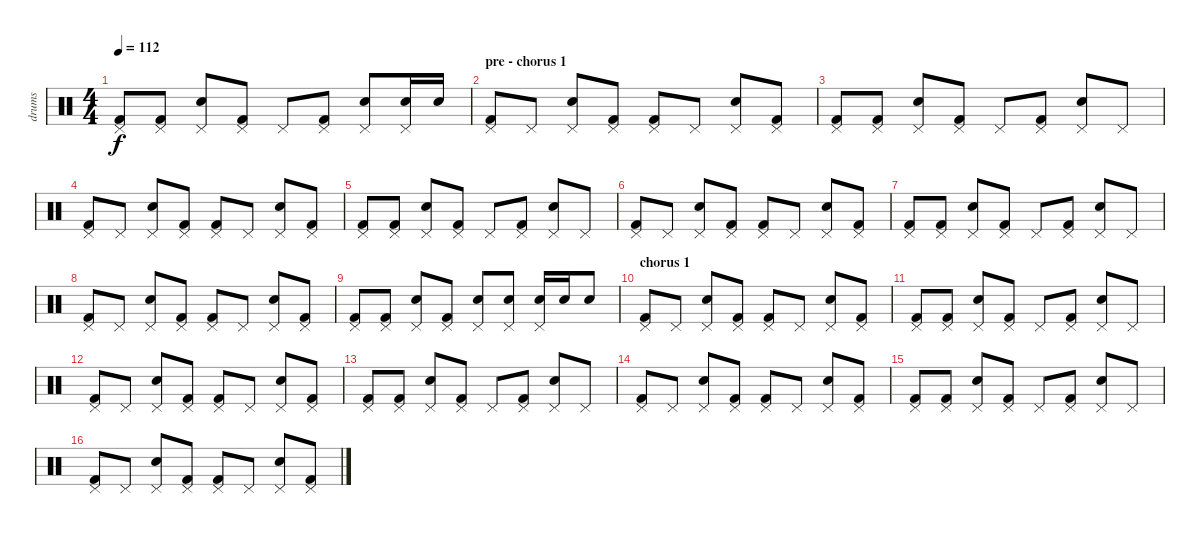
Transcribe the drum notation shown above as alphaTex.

\track ("drums" "drums") {instrument percussion}
\staff {score}
\articulation defaults
\ts (4 4)
\tempo 112
\clef neutral
\ks c
("Kick (hit) 2" "Pedal Hi-Hat (hit)").8{dy f} ("Kick (hit) 2" "Pedal Hi-Hat (hit)").8 ("Snare (hit) 2" "Pedal Hi-Hat (hit)").8 ("Kick (hit) 2" "Pedal Hi-Hat (hit)").8 "Pedal Hi-Hat (hit)".8 ("Kick (hit) 2" "Pedal Hi-Hat (hit)").8 ("Snare (hit) 2" "Pedal Hi-Hat (hit)").8 ("Snare (hit) 2" "Pedal Hi-Hat (hit)").16 "Snare (hit) 2".16 |
\section ("" "pre - chorus 1")
("Kick (hit) 2" "Pedal Hi-Hat (hit)").8 "Pedal Hi-Hat (hit)".8 ("Snare (hit) 2" "Pedal Hi-Hat (hit)").8 ("Kick (hit) 2" "Pedal Hi-Hat (hit)").8 ("Kick (hit) 2" "Pedal Hi-Hat (hit)").8 "Pedal Hi-Hat (hit)".8 ("Snare (hit) 2" "Pedal Hi-Hat (hit)").8 ("Kick (hit) 2" "Pedal Hi-Hat (hit)").8 |
("Kick (hit) 2" "Pedal Hi-Hat (hit)").8 ("Kick (hit) 2" "Pedal Hi-Hat (hit)").8 ("Snare (hit) 2" "Pedal Hi-Hat (hit)").8 ("Kick (hit) 2" "Pedal Hi-Hat (hit)").8 "Pedal Hi-Hat (hit)".8 ("Kick (hit) 2" "Pedal Hi-Hat (hit)").8 ("Snare (hit) 2" "Pedal Hi-Hat (hit)").8 "Pedal Hi-Hat (hit)".8 |
("Kick (hit) 2" "Pedal Hi-Hat (hit)").8 "Pedal Hi-Hat (hit)".8 ("Snare (hit) 2" "Pedal Hi-Hat (hit)").8 ("Kick (hit) 2" "Pedal Hi-Hat (hit)").8 ("Kick (hit) 2" "Pedal Hi-Hat (hit)").8 "Pedal Hi-Hat (hit)".8 ("Snare (hit) 2" "Pedal Hi-Hat (hit)").8 ("Kick (hit) 2" "Pedal Hi-Hat (hit)").8 |
("Kick (hit) 2" "Pedal Hi-Hat (hit)").8 ("Kick (hit) 2" "Pedal Hi-Hat (hit)").8 ("Snare (hit) 2" "Pedal Hi-Hat (hit)").8 ("Kick (hit) 2" "Pedal Hi-Hat (hit)").8 "Pedal Hi-Hat (hit)".8 ("Kick (hit) 2" "Pedal Hi-Hat (hit)").8 ("Snare (hit) 2" "Pedal Hi-Hat (hit)").8 "Pedal Hi-Hat (hit)".8 |
("Kick (hit) 2" "Pedal Hi-Hat (hit)").8 "Pedal Hi-Hat (hit)".8 ("Snare (hit) 2" "Pedal Hi-Hat (hit)").8 ("Kick (hit) 2" "Pedal Hi-Hat (hit)").8 ("Kick (hit) 2" "Pedal Hi-Hat (hit)").8 "Pedal Hi-Hat (hit)".8 ("Snare (hit) 2" "Pedal Hi-Hat (hit)").8 ("Kick (hit) 2" "Pedal Hi-Hat (hit)").8 |
("Kick (hit) 2" "Pedal Hi-Hat (hit)").8 ("Kick (hit) 2" "Pedal Hi-Hat (hit)").8 ("Snare (hit) 2" "Pedal Hi-Hat (hit)").8 ("Kick (hit) 2" "Pedal Hi-Hat (hit)").8 "Pedal Hi-Hat (hit)".8 ("Kick (hit) 2" "Pedal Hi-Hat (hit)").8 ("Snare (hit) 2" "Pedal Hi-Hat (hit)").8 "Pedal Hi-Hat (hit)".8 |
("Kick (hit) 2" "Pedal Hi-Hat (hit)").8 "Pedal Hi-Hat (hit)".8 ("Snare (hit) 2" "Pedal Hi-Hat (hit)").8 ("Kick (hit) 2" "Pedal Hi-Hat (hit)").8 ("Kick (hit) 2" "Pedal Hi-Hat (hit)").8 "Pedal Hi-Hat (hit)".8 ("Snare (hit) 2" "Pedal Hi-Hat (hit)").8 ("Kick (hit) 2" "Pedal Hi-Hat (hit)").8 |
("Kick (hit) 2" "Pedal Hi-Hat (hit)").8 ("Kick (hit) 2" "Pedal Hi-Hat (hit)").8 ("Snare (hit) 2" "Pedal Hi-Hat (hit)").8 ("Kick (hit) 2" "Pedal Hi-Hat (hit)").8 ("Snare (hit) 2" "Pedal Hi-Hat (hit)").8 ("Snare (hit) 2" "Pedal Hi-Hat (hit)").8 ("Snare (hit) 2" "Pedal Hi-Hat (hit)").16 "Snare (hit) 2".16 "Snare (hit) 2".8 |
\section ("" "chorus 1")
("Kick (hit) 2" "Pedal Hi-Hat (hit)").8 "Pedal Hi-Hat (hit)".8 ("Snare (hit) 2" "Pedal Hi-Hat (hit)").8 ("Kick (hit) 2" "Pedal Hi-Hat (hit)").8 ("Kick (hit) 2" "Pedal Hi-Hat (hit)").8 "Pedal Hi-Hat (hit)".8 ("Snare (hit) 2" "Pedal Hi-Hat (hit)").8 ("Kick (hit) 2" "Pedal Hi-Hat (hit)").8 |
("Kick (hit) 2" "Pedal Hi-Hat (hit)").8 ("Kick (hit) 2" "Pedal Hi-Hat (hit)").8 ("Snare (hit) 2" "Pedal Hi-Hat (hit)").8 ("Kick (hit) 2" "Pedal Hi-Hat (hit)").8 "Pedal Hi-Hat (hit)".8 ("Kick (hit) 2" "Pedal Hi-Hat (hit)").8 ("Snare (hit) 2" "Pedal Hi-Hat (hit)").8 "Pedal Hi-Hat (hit)".8 |
("Kick (hit) 2" "Pedal Hi-Hat (hit)").8 "Pedal Hi-Hat (hit)".8 ("Snare (hit) 2" "Pedal Hi-Hat (hit)").8 ("Kick (hit) 2" "Pedal Hi-Hat (hit)").8 ("Kick (hit) 2" "Pedal Hi-Hat (hit)").8 "Pedal Hi-Hat (hit)".8 ("Snare (hit) 2" "Pedal Hi-Hat (hit)").8 ("Kick (hit) 2" "Pedal Hi-Hat (hit)").8 |
("Kick (hit) 2" "Pedal Hi-Hat (hit)").8 ("Kick (hit) 2" "Pedal Hi-Hat (hit)").8 ("Snare (hit) 2" "Pedal Hi-Hat (hit)").8 ("Kick (hit) 2" "Pedal Hi-Hat (hit)").8 "Pedal Hi-Hat (hit)".8 ("Kick (hit) 2" "Pedal Hi-Hat (hit)").8 ("Snare (hit) 2" "Pedal Hi-Hat (hit)").8 "Pedal Hi-Hat (hit)".8 |
("Kick (hit) 2" "Pedal Hi-Hat (hit)").8 "Pedal Hi-Hat (hit)".8 ("Snare (hit) 2" "Pedal Hi-Hat (hit)").8 ("Kick (hit) 2" "Pedal Hi-Hat (hit)").8 ("Kick (hit) 2" "Pedal Hi-Hat (hit)").8 "Pedal Hi-Hat (hit)".8 ("Snare (hit) 2" "Pedal Hi-Hat (hit)").8 ("Kick (hit) 2" "Pedal Hi-Hat (hit)").8 |
("Kick (hit) 2" "Pedal Hi-Hat (hit)").8 ("Kick (hit) 2" "Pedal Hi-Hat (hit)").8 ("Snare (hit) 2" "Pedal Hi-Hat (hit)").8 ("Kick (hit) 2" "Pedal Hi-Hat (hit)").8 "Pedal Hi-Hat (hit)".8 ("Kick (hit) 2" "Pedal Hi-Hat (hit)").8 ("Snare (hit) 2" "Pedal Hi-Hat (hit)").8 "Pedal Hi-Hat (hit)".8 |
("Kick (hit) 2" "Pedal Hi-Hat (hit)").8 "Pedal Hi-Hat (hit)".8 ("Snare (hit) 2" "Pedal Hi-Hat (hit)").8 ("Kick (hit) 2" "Pedal Hi-Hat (hit)").8 ("Kick (hit) 2" "Pedal Hi-Hat (hit)").8 "Pedal Hi-Hat (hit)".8 ("Snare (hit) 2" "Pedal Hi-Hat (hit)").8 ("Kick (hit) 2" "Pedal Hi-Hat (hit)").8
